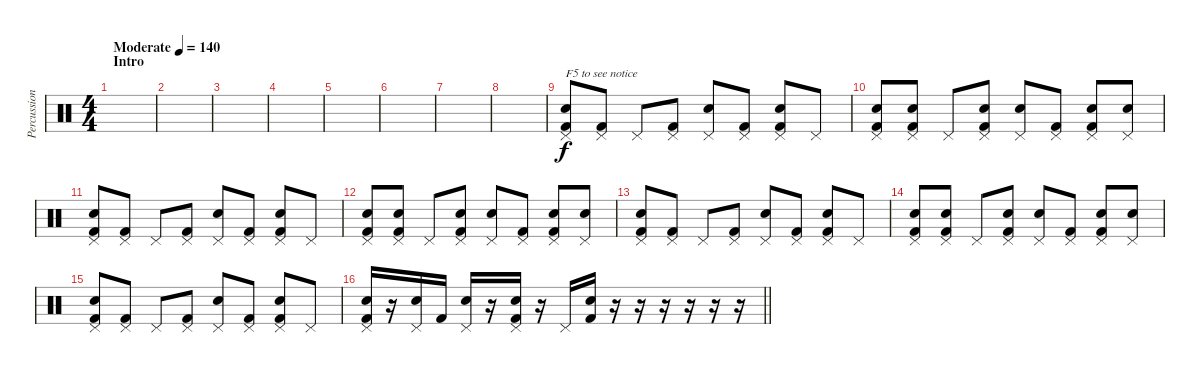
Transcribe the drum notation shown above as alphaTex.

\track ("Percussion" "Percussion") {instrument percussion}
\staff {score}
\articulation defaults
\ts (4 4)
\section ("" "Intro")
\tempo (140 "Moderate")
\clef neutral
\ks c
|
|
|
|
|
|
|
|
("Pedal Hi-Hat (hit)" "Electric Snare (hit)" "Kick (hit) 2").8{txt "F5 to see notice"} ("Pedal Hi-Hat (hit)" "Kick (hit) 2").8 "Pedal Hi-Hat (hit)".8 ("Pedal Hi-Hat (hit)" "Kick (hit) 2").8 ("Pedal Hi-Hat (hit)" "Electric Snare (hit)").8 ("Pedal Hi-Hat (hit)" "Kick (hit) 2").8 ("Pedal Hi-Hat (hit)" "Electric Snare (hit)" "Kick (hit) 2").8 "Pedal Hi-Hat (hit)".8 |
("Pedal Hi-Hat (hit)" "Electric Snare (hit)" "Kick (hit) 2").8 ("Pedal Hi-Hat (hit)" "Electric Snare (hit)" "Kick (hit) 2").8 "Pedal Hi-Hat (hit)".8 ("Pedal Hi-Hat (hit)" "Electric Snare (hit)" "Kick (hit) 2").8 ("Pedal Hi-Hat (hit)" "Electric Snare (hit)").8 ("Pedal Hi-Hat (hit)" "Kick (hit) 2").8 ("Pedal Hi-Hat (hit)" "Electric Snare (hit)" "Kick (hit) 2").8 ("Pedal Hi-Hat (hit)" "Electric Snare (hit)").8 |
("Pedal Hi-Hat (hit)" "Electric Snare (hit)" "Kick (hit) 2").8 ("Pedal Hi-Hat (hit)" "Kick (hit) 2").8 "Pedal Hi-Hat (hit)".8 ("Pedal Hi-Hat (hit)" "Kick (hit) 2").8 ("Pedal Hi-Hat (hit)" "Electric Snare (hit)").8 ("Pedal Hi-Hat (hit)" "Kick (hit) 2").8 ("Pedal Hi-Hat (hit)" "Electric Snare (hit)" "Kick (hit) 2").8 "Pedal Hi-Hat (hit)".8 |
("Pedal Hi-Hat (hit)" "Electric Snare (hit)" "Kick (hit) 2").8 ("Pedal Hi-Hat (hit)" "Electric Snare (hit)" "Kick (hit) 2").8 "Pedal Hi-Hat (hit)".8 ("Pedal Hi-Hat (hit)" "Electric Snare (hit)" "Kick (hit) 2").8 ("Pedal Hi-Hat (hit)" "Electric Snare (hit)").8 ("Pedal Hi-Hat (hit)" "Kick (hit) 2").8 ("Pedal Hi-Hat (hit)" "Electric Snare (hit)" "Kick (hit) 2").8 ("Pedal Hi-Hat (hit)" "Electric Snare (hit)").8 |
("Pedal Hi-Hat (hit)" "Electric Snare (hit)" "Kick (hit) 2").8 ("Pedal Hi-Hat (hit)" "Kick (hit) 2").8 "Pedal Hi-Hat (hit)".8 ("Pedal Hi-Hat (hit)" "Kick (hit) 2").8 ("Pedal Hi-Hat (hit)" "Electric Snare (hit)").8 ("Pedal Hi-Hat (hit)" "Kick (hit) 2").8 ("Pedal Hi-Hat (hit)" "Electric Snare (hit)" "Kick (hit) 2").8 "Pedal Hi-Hat (hit)".8 |
("Pedal Hi-Hat (hit)" "Electric Snare (hit)" "Kick (hit) 2").8 ("Pedal Hi-Hat (hit)" "Electric Snare (hit)" "Kick (hit) 2").8 "Pedal Hi-Hat (hit)".8 ("Pedal Hi-Hat (hit)" "Electric Snare (hit)" "Kick (hit) 2").8 ("Pedal Hi-Hat (hit)" "Electric Snare (hit)").8 ("Pedal Hi-Hat (hit)" "Kick (hit) 2").8 ("Pedal Hi-Hat (hit)" "Electric Snare (hit)" "Kick (hit) 2").8 ("Pedal Hi-Hat (hit)" "Electric Snare (hit)").8 |
("Pedal Hi-Hat (hit)" "Electric Snare (hit)" "Kick (hit) 2").8 ("Pedal Hi-Hat (hit)" "Kick (hit) 2").8 "Pedal Hi-Hat (hit)".8 ("Pedal Hi-Hat (hit)" "Kick (hit) 2").8 ("Pedal Hi-Hat (hit)" "Electric Snare (hit)").8 ("Pedal Hi-Hat (hit)" "Kick (hit) 2").8 ("Pedal Hi-Hat (hit)" "Electric Snare (hit)" "Kick (hit) 2").8 "Pedal Hi-Hat (hit)".8 |
\barLineRight lightlight
("Pedal Hi-Hat (hit)" "Electric Snare (hit)" "Kick (hit) 2").16 r.16 ("Pedal Hi-Hat (hit)" "Electric Snare (hit)").16 "Kick (hit) 2".16 ("Pedal Hi-Hat (hit)" "Electric Snare (hit)").16 r.16 ("Pedal Hi-Hat (hit)" "Electric Snare (hit)" "Kick (hit) 2").16 r.16 "Pedal Hi-Hat (hit)".16 ("Electric Snare (hit)" "Kick (hit) 2").16 r.16 r.16 r.16 r.16 r.16 r.16
